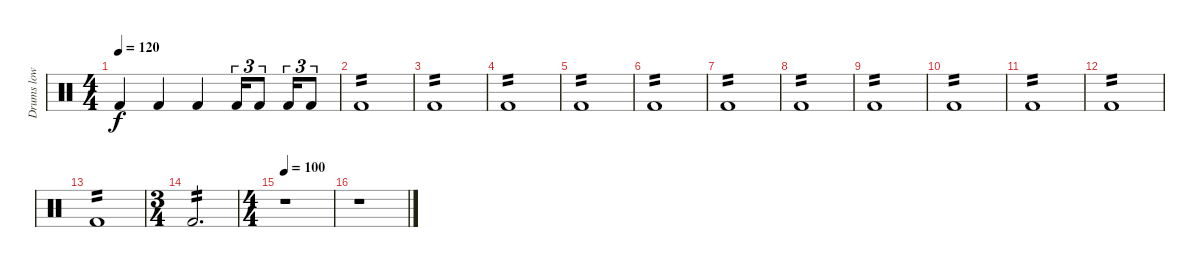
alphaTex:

\track ("Drums low" "Drums low") {instrument percussion}
\staff {score}
\articulation defaults
\ts (4 4)
\tempo 120
\clef neutral
\ks c "Kick (hit) 2".4{dy f} "Kick (hit) 2".4 "Kick (hit) 2".4 "Kick (hit) 2".16{tu (3 2)} "Kick (hit) 2".8{tu (3 2)} "Kick (hit) 2".16{tu (3 2)} "Kick (hit) 2".8{tu (3 2)}
|
"Kick (hit) 2".1{tp 2} |
"Kick (hit) 2".1{tp 2} |
"Kick (hit) 2".1{tp 2} |
"Kick (hit) 2".1{tp 2} |
"Kick (hit) 2".1{tp 2} |
"Kick (hit) 2".1{tp 2} |
"Kick (hit) 2".1{tp 2} |
"Kick (hit) 2".1{tp 2} |
"Kick (hit) 2".1{tp 2} |
"Kick (hit) 2".1{tp 2} |
"Kick (hit) 2".1{tp 2} |
"Kick (hit) 2".1{tp 2} |
\ts (3 4)
"Kick (hit) 2".2{d tp 2} |
\ts (4 4)
\tempo 100
r.1 |
r.1
